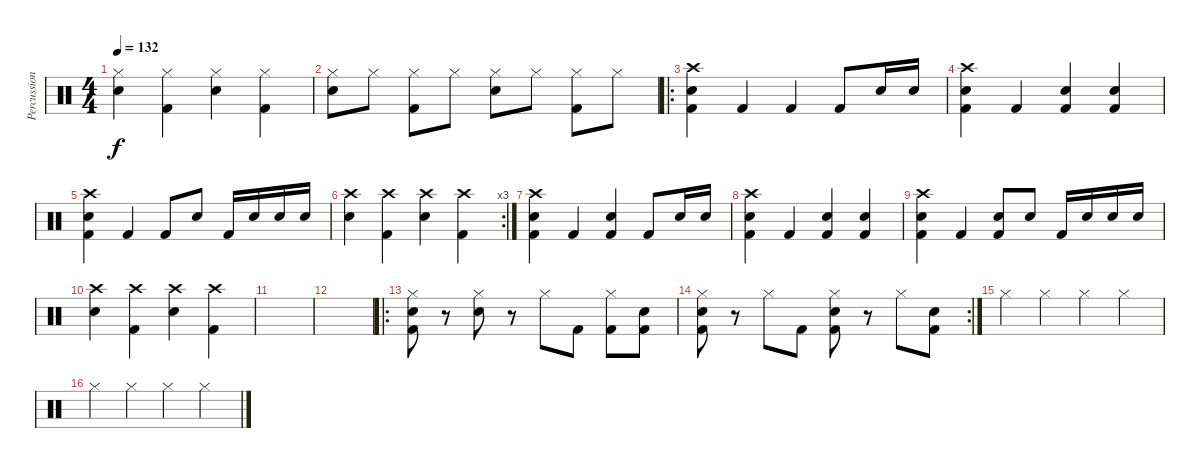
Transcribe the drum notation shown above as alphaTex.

\track ("Percussion" "Percussion") {instrument percussion}
\staff {score}
\articulation defaults
\ts (4 4)
\tempo 132
\clef neutral
\ks c
("Hi-Hat (closed)" "Electric Snare (hit)").4{dy f} ("Hi-Hat (closed)" "Kick (hit) 2").4 ("Hi-Hat (closed)" "Electric Snare (hit)").4 ("Hi-Hat (closed)" "Kick (hit) 2").4 |
("Hi-Hat (closed)" "Electric Snare (hit)").8 "Hi-Hat (closed)".8 ("Hi-Hat (closed)" "Kick (hit) 2").8 "Hi-Hat (closed)".8 ("Hi-Hat (closed)" "Electric Snare (hit)").8 "Hi-Hat (closed)".8 ("Hi-Hat (closed)" "Kick (hit) 2").8 "Hi-Hat (closed)".8 |
\ro
("Crash high (hit)" "Electric Snare (hit)" "Kick (hit) 2").4 "Kick (hit) 2".4 "Kick (hit) 2".4 "Kick (hit) 2".8 "Electric Snare (hit)".16 "Electric Snare (hit)".16 |
("Crash high (hit)" "Electric Snare (hit)" "Kick (hit) 2").4 "Kick (hit) 2".4 ("Electric Snare (hit)" "Kick (hit) 2").4 ("Electric Snare (hit)" "Kick (hit) 2").4 |
("Crash high (hit)" "Electric Snare (hit)" "Kick (hit) 2").4 "Kick (hit) 2".4 "Kick (hit) 2".8 "Electric Snare (hit)".8 "Kick (hit) 2".16 "Electric Snare (hit)".16 "Electric Snare (hit)".16 "Electric Snare (hit)".16 |
\rc 3
("Crash high (hit)" "Electric Snare (hit)").4 ("Crash high (hit)" "Kick (hit) 2").4 ("Crash high (hit)" "Electric Snare (hit)").4 ("Crash high (hit)" "Kick (hit) 2").4 |
("Crash high (hit)" "Electric Snare (hit)" "Kick (hit) 2").4 "Kick (hit) 2".4 ("Electric Snare (hit)" "Kick (hit) 2").4 "Kick (hit) 2".8 "Electric Snare (hit)".16 "Electric Snare (hit)".16 |
("Crash high (hit)" "Electric Snare (hit)" "Kick (hit) 2").4 "Kick (hit) 2".4 ("Electric Snare (hit)" "Kick (hit) 2").4 ("Electric Snare (hit)" "Kick (hit) 2").4 |
("Crash high (hit)" "Electric Snare (hit)" "Kick (hit) 2").4 "Kick (hit) 2".4 ("Electric Snare (hit)" "Kick (hit) 2").8 "Electric Snare (hit)".8 "Kick (hit) 2".16 "Electric Snare (hit)".16 "Electric Snare (hit)".16 "Electric Snare (hit)".16 |
("Crash high (hit)" "Electric Snare (hit)").4 ("Crash high (hit)" "Kick (hit) 2").4 ("Crash high (hit)" "Electric Snare (hit)").4 ("Crash high (hit)" "Kick (hit) 2").4 |
|
|
\ro
("Hi-Hat (closed)" "Electric Snare (hit)" "Kick (hit) 2").8 r.8 ("Hi-Hat (closed)" "Electric Snare (hit)").8 r.8 "Hi-Hat (closed)".8 "Kick (hit) 2".8 ("Hi-Hat (closed)" "Kick (hit) 2").8 ("Electric Snare (hit)" "Kick (hit) 2").8 |
\rc 2
("Hi-Hat (closed)" "Electric Snare (hit)" "Kick (hit) 2").8 r.8 "Hi-Hat (closed)".8 "Kick (hit) 2".8 ("Hi-Hat (closed)" "Electric Snare (hit)" "Kick (hit) 2").8 r.8 "Hi-Hat (closed)".8 ("Electric Snare (hit)" "Kick (hit) 2").8 |
"Hi-Hat (closed)".4 "Hi-Hat (closed)".4 "Hi-Hat (closed)".4 "Hi-Hat (closed)".4 |
"Hi-Hat (closed)".4 "Hi-Hat (closed)".4 "Hi-Hat (closed)".4 "Hi-Hat (closed)".4
